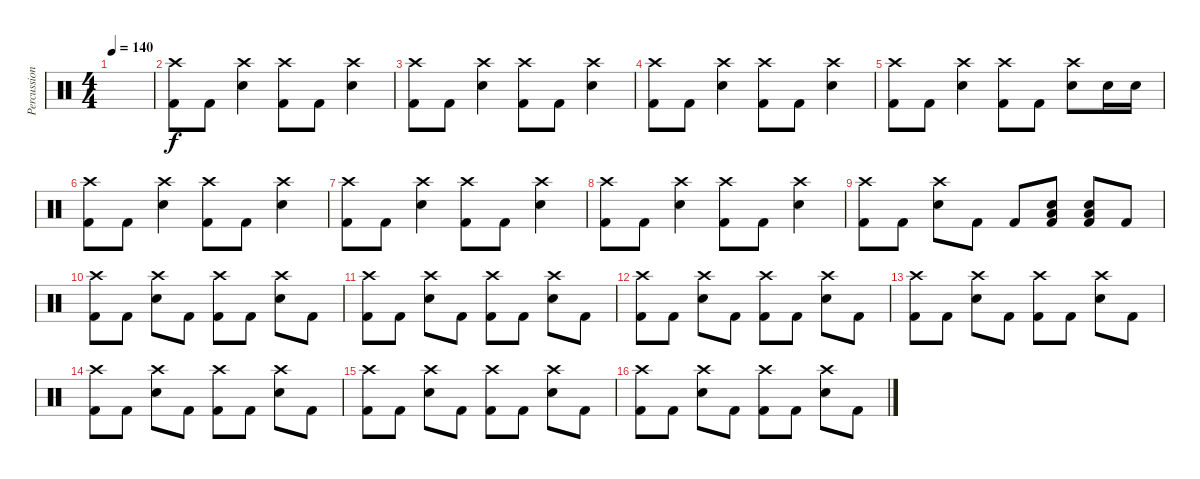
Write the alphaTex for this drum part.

\track ("Percussion" "Percussion") {instrument percussion}
\staff {score}
\articulation defaults
\ts (4 4)
\tempo 140
\clef neutral
\ks c
|
("Crash high (hit)" "Kick (hit) 2").8 "Kick (hit) 2".8 ("Crash high (hit)" "Electric Snare (hit)").4 ("Crash high (hit)" "Kick (hit) 2").8 "Kick (hit) 2".8 ("Crash high (hit)" "Electric Snare (hit)").4 |
("Crash high (hit)" "Kick (hit) 2").8 "Kick (hit) 2".8 ("Crash high (hit)" "Electric Snare (hit)").4 ("Crash high (hit)" "Kick (hit) 2").8 "Kick (hit) 2".8 ("Crash high (hit)" "Electric Snare (hit)").4 |
("Crash high (hit)" "Kick (hit) 2").8 "Kick (hit) 2".8 ("Crash high (hit)" "Electric Snare (hit)").4 ("Crash high (hit)" "Kick (hit) 2").8 "Kick (hit) 2".8 ("Crash high (hit)" "Electric Snare (hit)").4 |
("Crash high (hit)" "Kick (hit) 2").8 "Kick (hit) 2".8 ("Crash high (hit)" "Electric Snare (hit)").4 ("Crash high (hit)" "Kick (hit) 2").8 "Kick (hit) 2".8 ("Crash high (hit)" "Electric Snare (hit)").8 "Electric Snare (hit)".16 "Electric Snare (hit)".16 |
("Crash high (hit)" "Kick (hit) 2").8 "Kick (hit) 2".8 ("Crash high (hit)" "Electric Snare (hit)").4 ("Crash high (hit)" "Kick (hit) 2").8 "Kick (hit) 2".8 ("Crash high (hit)" "Electric Snare (hit)").4 |
("Crash high (hit)" "Kick (hit) 2").8 "Kick (hit) 2".8 ("Crash high (hit)" "Electric Snare (hit)").4 ("Crash high (hit)" "Kick (hit) 2").8 "Kick (hit) 2".8 ("Crash high (hit)" "Electric Snare (hit)").4 |
("Crash high (hit)" "Kick (hit) 2").8 "Kick (hit) 2".8 ("Crash high (hit)" "Electric Snare (hit)").4 ("Crash high (hit)" "Kick (hit) 2").8 "Kick (hit) 2".8 ("Crash high (hit)" "Electric Snare (hit)").4 |
("Crash high (hit)" "Kick (hit) 2").8 "Kick (hit) 2".8 ("Crash high (hit)" "Electric Snare (hit)").8 "Kick (hit) 2".8 "Kick (hit) 2".8 ("Low Floor Tom (hit)" "Electric Snare (hit)" "Kick (hit) 2").8 ("Low Floor Tom (hit)" "Electric Snare (hit)" "Kick (hit) 2").8 "Kick (hit) 2".8 |
("Crash high (hit)" "Kick (hit) 2").8 "Kick (hit) 2".8 ("Crash high (hit)" "Electric Snare (hit)").8 "Kick (hit) 2".8 ("Crash high (hit)" "Kick (hit) 2").8 "Kick (hit) 2".8 ("Crash high (hit)" "Electric Snare (hit)").8 "Kick (hit) 2".8 |
("Crash high (hit)" "Kick (hit) 2").8 "Kick (hit) 2".8 ("Crash high (hit)" "Electric Snare (hit)").8 "Kick (hit) 2".8 ("Crash high (hit)" "Kick (hit) 2").8 "Kick (hit) 2".8 ("Crash high (hit)" "Electric Snare (hit)").8 "Kick (hit) 2".8 |
("Crash high (hit)" "Kick (hit) 2").8 "Kick (hit) 2".8 ("Crash high (hit)" "Electric Snare (hit)").8 "Kick (hit) 2".8 ("Crash high (hit)" "Kick (hit) 2").8 "Kick (hit) 2".8 ("Crash high (hit)" "Electric Snare (hit)").8 "Kick (hit) 2".8 |
("Crash high (hit)" "Kick (hit) 2").8 "Kick (hit) 2".8 ("Crash high (hit)" "Electric Snare (hit)").8 "Kick (hit) 2".8 ("Crash high (hit)" "Kick (hit) 2").8 "Kick (hit) 2".8 ("Crash high (hit)" "Electric Snare (hit)").8 "Kick (hit) 2".8 |
("Crash high (hit)" "Kick (hit) 2").8 "Kick (hit) 2".8 ("Crash high (hit)" "Electric Snare (hit)").8 "Kick (hit) 2".8 ("Crash high (hit)" "Kick (hit) 2").8 "Kick (hit) 2".8 ("Crash high (hit)" "Electric Snare (hit)").8 "Kick (hit) 2".8 |
("Crash high (hit)" "Kick (hit) 2").8 "Kick (hit) 2".8 ("Crash high (hit)" "Electric Snare (hit)").8 "Kick (hit) 2".8 ("Crash high (hit)" "Kick (hit) 2").8 "Kick (hit) 2".8 ("Crash high (hit)" "Electric Snare (hit)").8 "Kick (hit) 2".8 |
("Crash high (hit)" "Kick (hit) 2").8 "Kick (hit) 2".8 ("Crash high (hit)" "Electric Snare (hit)").8 "Kick (hit) 2".8 ("Crash high (hit)" "Kick (hit) 2").8 "Kick (hit) 2".8 ("Crash high (hit)" "Electric Snare (hit)").8 "Kick (hit) 2".8
